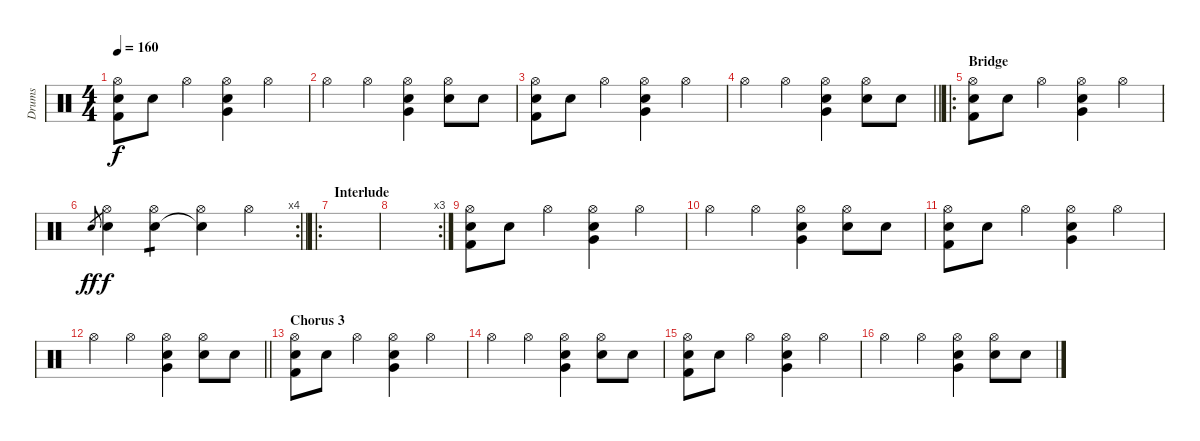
\track ("Drums" "Drums") {instrument percussion}
\staff {score}
\articulation defaults
\ts (4 4)
\tempo 160
\clef neutral
\ks c
("Hi-Hat (open)" "Electric Snare (hit)" "Kick (hit) 2").8{dy f} "Electric Snare (hit)".8 "Hi-Hat (open)".4 ("Hi-Hat (open)" "Electric Snare (hit)" "Very Low Tom (hit)").4 "Hi-Hat (open)".4 |
"Hi-Hat (open)".4 "Hi-Hat (open)".4 ("Hi-Hat (open)" "Electric Snare (hit)" "Very Low Tom (hit)").4 ("Hi-Hat (open)" "Snare (hit) 2").8 "Electric Snare (hit)".8 |
("Hi-Hat (open)" "Electric Snare (hit)" "Kick (hit) 2").8 "Electric Snare (hit)".8 "Hi-Hat (open)".4 ("Hi-Hat (open)" "Electric Snare (hit)" "Very Low Tom (hit)").4 "Hi-Hat (open)".4 |
\barLineRight lightlight "Hi-Hat (open)".4 "Hi-Hat (open)".4
("Hi-Hat (open)" "Electric Snare (hit)" "Very Low Tom (hit)").4 ("Hi-Hat (open)" "Snare (hit) 2").8 "Electric Snare (hit)".8 |
\ro
\section ("" "Bridge")
("Hi-Hat (open)" "Electric Snare (hit)" "Kick (hit) 2").8 "Electric Snare (hit)".8 "Hi-Hat (open)".4 ("Hi-Hat (open)" "Electric Snare (hit)" "Very Low Tom (hit)").4 "Hi-Hat (open)".4 |
\rc 4
\barLineRight lightlight "Electric Snare (hit)".8{gr dy ff}
("Hi-Hat (open)" "Electric Snare (hit)").4{dy f} ("Hi-Hat (open)" "Electric Snare (hit)").4{tp 1} ("Hi-Hat (open)" "Electric Snare (hit)"{t}).4 "Hi-Hat (open)".4 |
\ro
\section ("" "Interlude")
|
\rc 3
|
("Hi-Hat (open)" "Electric Snare (hit)" "Kick (hit) 2").8 "Electric Snare (hit)".8 "Hi-Hat (open)".4 ("Hi-Hat (open)" "Electric Snare (hit)" "Very Low Tom (hit)").4 "Hi-Hat (open)".4 |
"Hi-Hat (open)".4 "Hi-Hat (open)".4 ("Hi-Hat (open)" "Electric Snare (hit)" "Very Low Tom (hit)").4 ("Hi-Hat (open)" "Snare (hit) 2").8 "Electric Snare (hit)".8 |
("Hi-Hat (open)" "Electric Snare (hit)" "Kick (hit) 2").8 "Electric Snare (hit)".8 "Hi-Hat (open)".4 ("Hi-Hat (open)" "Electric Snare (hit)" "Very Low Tom (hit)").4 "Hi-Hat (open)".4 |
\barLineRight lightlight "Hi-Hat (open)".4 "Hi-Hat (open)".4
("Hi-Hat (open)" "Electric Snare (hit)" "Very Low Tom (hit)").4 ("Hi-Hat (open)" "Snare (hit) 2").8 "Electric Snare (hit)".8 |
\section ("" "Chorus 3")
("Hi-Hat (open)" "Electric Snare (hit)" "Kick (hit) 2").8 "Electric Snare (hit)".8 "Hi-Hat (open)".4 ("Hi-Hat (open)" "Electric Snare (hit)" "Very Low Tom (hit)").4 "Hi-Hat (open)".4 |
"Hi-Hat (open)".4 "Hi-Hat (open)".4 ("Hi-Hat (open)" "Electric Snare (hit)" "Very Low Tom (hit)").4 ("Hi-Hat (open)" "Snare (hit) 2").8 "Electric Snare (hit)".8 |
("Hi-Hat (open)" "Electric Snare (hit)" "Kick (hit) 2").8 "Electric Snare (hit)".8 "Hi-Hat (open)".4 ("Hi-Hat (open)" "Electric Snare (hit)" "Very Low Tom (hit)").4 "Hi-Hat (open)".4 |
"Hi-Hat (open)".4 "Hi-Hat (open)".4 ("Hi-Hat (open)" "Electric Snare (hit)" "Very Low Tom (hit)").4 ("Hi-Hat (open)" "Snare (hit) 2").8 "Electric Snare (hit)".8
